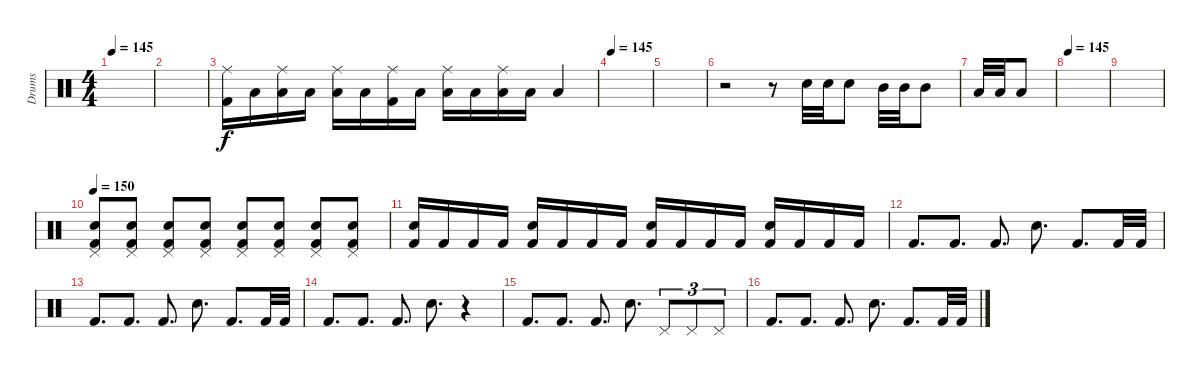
\track ("Drums" "Drums") {instrument percussion}
\staff {score}
\articulation defaults
\ts (4 4)
\tempo 145
\clef neutral
\ks c
|
|
("Ride (middle)" "Kick (hit) 2").16 "Low Tom (hit)".16 ("Ride (middle)" "Low Tom (hit)").16 "Low Tom (hit)".16 ("Ride (middle)" "Low Tom (hit)").16 "Low Tom (hit)".16 ("Ride (middle)" "Kick (hit) 2").16 "Low Tom (hit)".16 ("Ride (middle)" "Low Tom (hit)").16 "Low Tom (hit)".16 ("Ride (middle)" "Low Tom (hit)").16 "Low Tom (hit)".16 "Low Tom (hit)".4 |
\tempo 145
|
|
r.2 r.8 "Snare (hit) 2".32 "Snare (hit) 2".32 "Snare (hit) 2".8 "Mid Tom (hit)".32 "Mid Tom (hit)".32 "Mid Tom (hit)".8 |
"Low Tom (hit)".32 "Low Tom (hit)".32 "Low Tom (hit)".8 |
\tempo 145
|
|
\tempo 150
("Pedal Hi-Hat (hit)" "Snare (hit) 2" "Kick (hit) 2").8 ("Pedal Hi-Hat (hit)" "Snare (hit) 2" "Kick (hit) 2").8 ("Pedal Hi-Hat (hit)" "Snare (hit) 2" "Kick (hit) 2").8 ("Pedal Hi-Hat (hit)" "Snare (hit) 2" "Kick (hit) 2").8 ("Pedal Hi-Hat (hit)" "Snare (hit) 2" "Kick (hit) 2").8 ("Pedal Hi-Hat (hit)" "Snare (hit) 2" "Kick (hit) 2").8 ("Pedal Hi-Hat (hit)" "Snare (hit) 2" "Kick (hit) 2").8 ("Pedal Hi-Hat (hit)" "Snare (hit) 2" "Kick (hit) 2").8 |
("Snare (hit) 2" "Kick (hit) 2").16 "Kick (hit) 2".16 "Kick (hit) 2".16 "Kick (hit) 2".16 ("Snare (hit) 2" "Kick (hit) 2").16 "Kick (hit) 2".16 "Kick (hit) 2".16 "Kick (hit) 2".16 ("Snare (hit) 2" "Kick (hit) 2").16 "Kick (hit) 2".16 "Kick (hit) 2".16 "Kick (hit) 2".16 ("Snare (hit) 2" "Kick (hit) 2").16 "Kick (hit) 2".16 "Kick (hit) 2".16 "Kick (hit) 2".16 |
"Kick (hit) 2".8{d} "Kick (hit) 2".8{d} "Kick (hit) 2".8{d} "Snare (hit) 2".8{d} "Kick (hit) 2".8{d} "Kick (hit) 2".32 "Kick (hit) 2".32 |
"Kick (hit) 2".8{d} "Kick (hit) 2".8{d} "Kick (hit) 2".8{d} "Snare (hit) 2".8{d} "Kick (hit) 2".8{d} "Kick (hit) 2".32 "Kick (hit) 2".32 |
"Kick (hit) 2".8{d} "Kick (hit) 2".8{d} "Kick (hit) 2".8{d} "Snare (hit) 2".8{d} r.4 |
"Kick (hit) 2".8{d} "Kick (hit) 2".8{d} "Kick (hit) 2".8{d} "Snare (hit) 2".8{d} "Pedal Hi-Hat (hit)".8{tu (3 2)} "Pedal Hi-Hat (hit)".8{tu (3 2)} "Pedal Hi-Hat (hit)".8{tu (3 2)} |
"Kick (hit) 2".8{d} "Kick (hit) 2".8{d} "Kick (hit) 2".8{d} "Snare (hit) 2".8{d} "Kick (hit) 2".8{d} "Kick (hit) 2".32 "Kick (hit) 2".32
